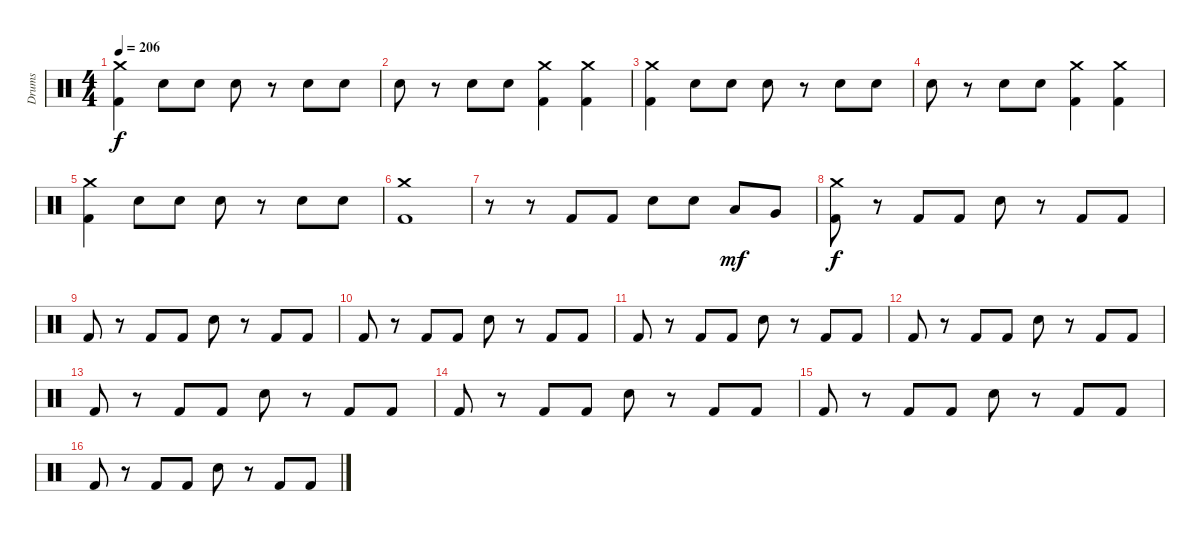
\track ("Drums" "Drums") {instrument percussion}
\staff {score}
\articulation defaults
\ts (4 4)
\tempo 206
\clef neutral
\ks c
("Crash medium (hit)" "Kick (hit) 2").4{dy f} "Snare (hit) 2".8 "Snare (hit) 2".8 "Snare (hit) 2".8 r.8 "Snare (hit) 2".8 "Snare (hit) 2".8 |
"Snare (hit) 2".8 r.8 "Snare (hit) 2".8 "Snare (hit) 2".8 ("Crash medium (hit)" "Kick (hit) 2").4 ("Crash medium (hit)" "Kick (hit) 2").4 |
("Crash medium (hit)" "Kick (hit) 2").4 "Snare (hit) 2".8 "Snare (hit) 2".8 "Snare (hit) 2".8 r.8 "Snare (hit) 2".8 "Snare (hit) 2".8 |
"Snare (hit) 2".8 r.8 "Snare (hit) 2".8 "Snare (hit) 2".8 ("Crash medium (hit)" "Kick (hit) 2").4 ("Crash medium (hit)" "Kick (hit) 2").4 |
("Crash medium (hit)" "Kick (hit) 2").4 "Snare (hit) 2".8 "Snare (hit) 2".8 "Snare (hit) 2".8 r.8 "Snare (hit) 2".8 "Snare (hit) 2".8 |
("Crash medium (hit)" "Kick (hit) 2").1 |
r.8 r.8 "Kick (hit) 2".8 "Kick (hit) 2".8 "Snare (hit) 2".8 "Snare (hit) 2".8 "Low Tom (hit)".8{dy mf} "Very Low Tom (hit)".8 |
("Crash medium (hit)" "Kick (hit) 2").8{dy f} r.8 "Kick (hit) 2".8 "Kick (hit) 2".8 "Snare (hit) 2".8 r.8 "Kick (hit) 2".8 "Kick (hit) 2".8 |
"Kick (hit) 2".8 r.8 "Kick (hit) 2".8 "Kick (hit) 2".8 "Snare (hit) 2".8 r.8 "Kick (hit) 2".8 "Kick (hit) 2".8 |
"Kick (hit) 2".8 r.8 "Kick (hit) 2".8 "Kick (hit) 2".8 "Snare (hit) 2".8 r.8 "Kick (hit) 2".8 "Kick (hit) 2".8 |
"Kick (hit) 2".8 r.8 "Kick (hit) 2".8 "Kick (hit) 2".8 "Snare (hit) 2".8 r.8 "Kick (hit) 2".8 "Kick (hit) 2".8 |
"Kick (hit) 2".8 r.8 "Kick (hit) 2".8 "Kick (hit) 2".8 "Snare (hit) 2".8 r.8 "Kick (hit) 2".8 "Kick (hit) 2".8 |
"Kick (hit) 2".8 r.8 "Kick (hit) 2".8 "Kick (hit) 2".8 "Snare (hit) 2".8 r.8 "Kick (hit) 2".8 "Kick (hit) 2".8 |
"Kick (hit) 2".8 r.8 "Kick (hit) 2".8 "Kick (hit) 2".8 "Snare (hit) 2".8 r.8 "Kick (hit) 2".8 "Kick (hit) 2".8 |
"Kick (hit) 2".8 r.8 "Kick (hit) 2".8 "Kick (hit) 2".8 "Snare (hit) 2".8 r.8 "Kick (hit) 2".8 "Kick (hit) 2".8 |
"Kick (hit) 2".8 r.8 "Kick (hit) 2".8 "Kick (hit) 2".8 "Snare (hit) 2".8 r.8 "Kick (hit) 2".8 "Kick (hit) 2".8
